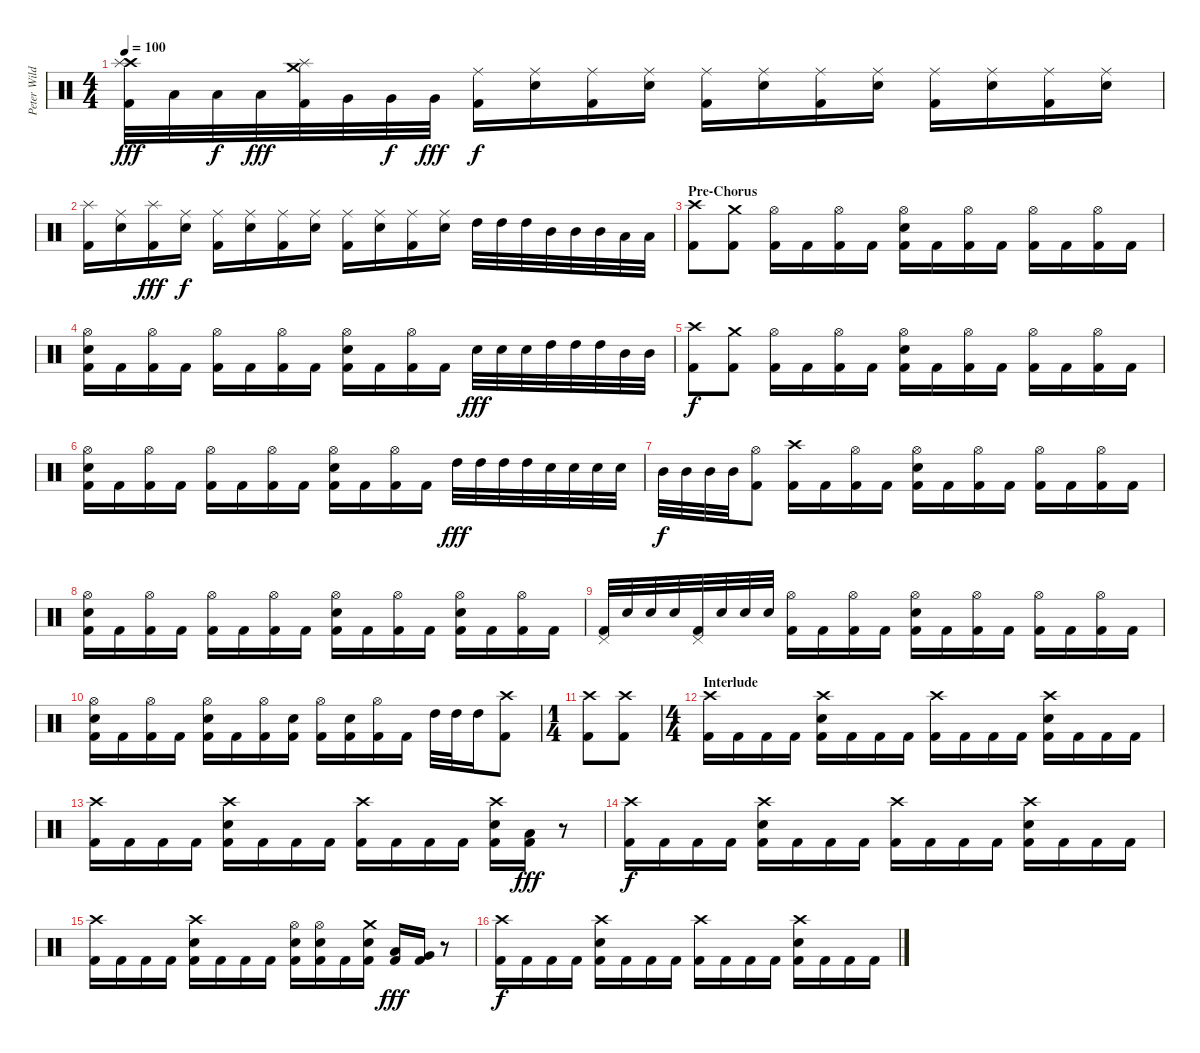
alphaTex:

\track ("Peter Wildoer" "Peter Wild") {instrument percussion}
\staff {score}
\articulation defaults
\ts (4 4)
\tempo 100
\clef neutral
\ks c
("Crash high (hit)" "Splash (hit)" "Kick (hit) 2").32{dy fff} "Low Tom (hit)".32 "Low Tom (hit)".32{dy f} "Low Tom (hit)".32{dy fff} ("Crash medium (hit)" "Splash (hit)" "Kick (hit) 2").32 "Very Low Tom (hit)".32 "Very Low Tom (hit)".32{dy f} "Very Low Tom (hit)".32{dy fff} ("Ride (middle)" "Kick (hit) 2").16{dy f} ("Ride (middle)" "Electric Snare (hit)").16 ("Ride (middle)" "Kick (hit) 2").16 ("Ride (middle)" "Electric Snare (hit)").16 ("Ride (middle)" "Kick (hit) 2").16 ("Ride (middle)" "Electric Snare (hit)").16 ("Ride (middle)" "Kick (hit) 2").16 ("Ride (middle)" "Electric Snare (hit)").16 ("Ride (middle)" "Kick (hit) 2").16 ("Ride (middle)" "Electric Snare (hit)").16 ("Ride (middle)" "Kick (hit) 2").16 ("Ride (middle)" "Electric Snare (hit)").16 |
("Splash (hit)" "Kick (hit) 2").16 ("Ride (middle)" "Electric Snare (hit)").16 ("Splash (hit)" "Kick (hit) 2").16{dy fff} ("Ride (middle)" "Electric Snare (hit)").16{dy f} ("Ride (middle)" "Kick (hit) 2").16 ("Ride (middle)" "Electric Snare (hit)").16 ("Ride (middle)" "Kick (hit) 2").16 ("Ride (middle)" "Electric Snare (hit)").16 ("Ride (middle)" "Kick (hit) 2").16 ("Ride (middle)" "Electric Snare (hit)").16 ("Ride (middle)" "Kick (hit) 2").16 ("Ride (middle)" "Electric Snare (hit)").16 "High Tom (hit)".32 "High Tom (hit)".32 "High Tom (hit)".32 "Mid Tom (hit)".32 "Mid Tom (hit)".32 "Mid Tom (hit)".32 "Low Tom (hit)".32 "Low Tom (hit)".32 |
\section ("" "Pre-Chorus")
("Crash high (hit)" "Kick (hit) 2").8 ("Crash medium (hit)" "Kick (hit) 2").8 ("Hi-Hat (open)" "Kick (hit) 2").16 "Kick (hit) 2".16 ("Hi-Hat (open)" "Kick (hit) 2").16 "Kick (hit) 2".16 ("Hi-Hat (open)" "Electric Snare (hit)" "Kick (hit) 2").16 "Kick (hit) 2".16 ("Hi-Hat (open)" "Kick (hit) 2").16 "Kick (hit) 2".16 ("Hi-Hat (open)" "Kick (hit) 2").16 "Kick (hit) 2".16 ("Hi-Hat (open)" "Kick (hit) 2").16 "Kick (hit) 2".16 |
("Hi-Hat (open)" "Electric Snare (hit)" "Kick (hit) 2").16 "Kick (hit) 2".16 ("Hi-Hat (open)" "Kick (hit) 2").16 "Kick (hit) 2".16 ("Hi-Hat (open)" "Kick (hit) 2").16 "Kick (hit) 2".16 ("Hi-Hat (open)" "Kick (hit) 2").16 "Kick (hit) 2".16 ("Hi-Hat (open)" "Electric Snare (hit)" "Kick (hit) 2").16 "Kick (hit) 2".16 ("Hi-Hat (open)" "Kick (hit) 2").16 "Kick (hit) 2".16 "Electric Snare (hit)".32{dy fff} "Electric Snare (hit)".32 "Electric Snare (hit)".32 "High Tom (hit)".32 "High Tom (hit)".32 "High Tom (hit)".32 "Mid Tom (hit)".32 "Mid Tom (hit)".32 |
("Crash high (hit)" "Kick (hit) 2").8{dy f} ("Crash medium (hit)" "Kick (hit) 2").8 ("Hi-Hat (open)" "Kick (hit) 2").16 "Kick (hit) 2".16 ("Hi-Hat (open)" "Kick (hit) 2").16 "Kick (hit) 2".16 ("Hi-Hat (open)" "Electric Snare (hit)" "Kick (hit) 2").16 "Kick (hit) 2".16 ("Hi-Hat (open)" "Kick (hit) 2").16 "Kick (hit) 2".16 ("Hi-Hat (open)" "Kick (hit) 2").16 "Kick (hit) 2".16 ("Hi-Hat (open)" "Kick (hit) 2").16 "Kick (hit) 2".16 |
("Hi-Hat (open)" "Electric Snare (hit)" "Kick (hit) 2").16 "Kick (hit) 2".16 ("Hi-Hat (open)" "Kick (hit) 2").16 "Kick (hit) 2".16 ("Hi-Hat (open)" "Kick (hit) 2").16 "Kick (hit) 2".16 ("Hi-Hat (open)" "Kick (hit) 2").16 "Kick (hit) 2".16 ("Hi-Hat (open)" "Electric Snare (hit)" "Kick (hit) 2").16 "Kick (hit) 2".16 ("Hi-Hat (open)" "Kick (hit) 2").16 "Kick (hit) 2".16 "High Tom (hit)".32{dy fff} "High Tom (hit)".32 "High Tom (hit)".32 "High Tom (hit)".32 "Electric Snare (hit)".32 "Electric Snare (hit)".32 "Electric Snare (hit)".32 "Electric Snare (hit)".32 |
"Mid Tom (hit)".32{dy f} "Mid Tom (hit)".32 "Mid Tom (hit)".32 "Mid Tom (hit)".32 ("Hi-Hat (open)" "Kick (hit) 2").8 ("Crash high (hit)" "Kick (hit) 2").16 "Kick (hit) 2".16 ("Hi-Hat (open)" "Kick (hit) 2").16 "Kick (hit) 2".16 ("Hi-Hat (open)" "Electric Snare (hit)" "Kick (hit) 2").16 "Kick (hit) 2".16 ("Hi-Hat (open)" "Kick (hit) 2").16 "Kick (hit) 2".16 ("Hi-Hat (open)" "Kick (hit) 2").16 "Kick (hit) 2".16 ("Hi-Hat (open)" "Kick (hit) 2").16 "Kick (hit) 2".16 |
("Hi-Hat (open)" "Electric Snare (hit)" "Kick (hit) 2").16 "Kick (hit) 2".16 ("Hi-Hat (open)" "Kick (hit) 2").16 "Kick (hit) 2".16 ("Hi-Hat (open)" "Kick (hit) 2").16 "Kick (hit) 2".16 ("Hi-Hat (open)" "Kick (hit) 2").16 "Kick (hit) 2".16 ("Hi-Hat (open)" "Electric Snare (hit)" "Kick (hit) 2").16 "Kick (hit) 2".16 ("Hi-Hat (open)" "Kick (hit) 2").16 "Kick (hit) 2".16 ("Hi-Hat (open)" "Electric Snare (hit)" "Kick (hit) 2").16 "Kick (hit) 2".16 ("Hi-Hat (open)" "Kick (hit) 2").16 "Kick (hit) 2".16 |
("Pedal Hi-Hat (hit)" "Kick (hit) 2").32 "Electric Snare (hit)".32 "Electric Snare (hit)".32 "Electric Snare (hit)".32 ("Pedal Hi-Hat (hit)" "Kick (hit) 2").32 "Electric Snare (hit)".32 "Electric Snare (hit)".32 "Electric Snare (hit)".32 ("Hi-Hat (open)" "Kick (hit) 2").16 "Kick (hit) 2".16 ("Hi-Hat (open)" "Kick (hit) 2").16 "Kick (hit) 2".16 ("Hi-Hat (open)" "Electric Snare (hit)" "Kick (hit) 2").16 "Kick (hit) 2".16 ("Hi-Hat (open)" "Kick (hit) 2").16 "Kick (hit) 2".16 ("Hi-Hat (open)" "Kick (hit) 2").16 "Kick (hit) 2".16 ("Hi-Hat (open)" "Kick (hit) 2").16 "Kick (hit) 2".16 |
("Hi-Hat (open)" "Electric Snare (hit)" "Kick (hit) 2").16 "Kick (hit) 2".16 ("Hi-Hat (open)" "Kick (hit) 2").16 "Kick (hit) 2".16 ("Hi-Hat (open)" "Electric Snare (hit)" "Kick (hit) 2").16 "Kick (hit) 2".16 ("Hi-Hat (open)" "Kick (hit) 2").16 ("Electric Snare (hit)" "Kick (hit) 2").16 ("Hi-Hat (open)" "Kick (hit) 2").16 ("Electric Snare (hit)" "Kick (hit) 2").16 ("Hi-Hat (open)" "Kick (hit) 2").16 "Kick (hit) 2".16 "High Tom (hit)".32 "High Tom (hit)".32 "High Tom (hit)".16 ("Crash high (hit)" "Kick (hit) 2").8 |
\ts (1 4)
("Crash high (hit)" "Kick (hit) 2").8 ("Crash high (hit)" "Kick (hit) 2").8 |
\ts (4 4)
\section ("" "Interlude")
("Crash high (hit)" "Kick (hit) 2").16 "Kick (hit) 2".16 "Kick (hit) 2".16 "Kick (hit) 2".16 ("Crash high (hit)" "Electric Snare (hit)" "Kick (hit) 2").16 "Kick (hit) 2".16 "Kick (hit) 2".16 "Kick (hit) 2".16 ("Crash high (hit)" "Kick (hit) 2").16 "Kick (hit) 2".16 "Kick (hit) 2".16 "Kick (hit) 2".16 ("Crash high (hit)" "Electric Snare (hit)" "Kick (hit) 2").16 "Kick (hit) 2".16 "Kick (hit) 2".16 "Kick (hit) 2".16 |
("Crash high (hit)" "Kick (hit) 2").16 "Kick (hit) 2".16 "Kick (hit) 2".16 "Kick (hit) 2".16 ("Crash high (hit)" "Electric Snare (hit)" "Kick (hit) 2").16 "Kick (hit) 2".16 "Kick (hit) 2".16 "Kick (hit) 2".16 ("Crash high (hit)" "Kick (hit) 2").16 "Kick (hit) 2".16 "Kick (hit) 2".16 "Kick (hit) 2".16 ("Crash high (hit)" "Electric Snare (hit)" "Kick (hit) 2").16 ("Low Floor Tom (hit)" "Kick (hit) 2").16{dy fff} r.8 |
("Crash high (hit)" "Kick (hit) 2").16{dy f} "Kick (hit) 2".16 "Kick (hit) 2".16 "Kick (hit) 2".16 ("Crash high (hit)" "Electric Snare (hit)" "Kick (hit) 2").16 "Kick (hit) 2".16 "Kick (hit) 2".16 "Kick (hit) 2".16 ("Crash high (hit)" "Kick (hit) 2").16 "Kick (hit) 2".16 "Kick (hit) 2".16 "Kick (hit) 2".16 ("Crash high (hit)" "Electric Snare (hit)" "Kick (hit) 2").16 "Kick (hit) 2".16 "Kick (hit) 2".16 "Kick (hit) 2".16 |
("Crash high (hit)" "Kick (hit) 2").16 "Kick (hit) 2".16 "Kick (hit) 2".16 "Kick (hit) 2".16 ("Crash high (hit)" "Electric Snare (hit)" "Kick (hit) 2").16 "Kick (hit) 2".16 "Kick (hit) 2".16 "Kick (hit) 2".16 ("Hi-Hat (open)" "Electric Snare (hit)" "Kick (hit) 2").16 ("Hi-Hat (open)" "Electric Snare (hit)" "Kick (hit) 2").16 "Kick (hit) 2".16 ("Crash medium (hit)" "Electric Snare (hit)" "Kick (hit) 2").16 ("Low Tom (hit)" "Kick (hit) 2").16{dy fff} ("Very Low Tom (hit)" "Kick (hit) 2").16 r.8 |
("Crash high (hit)" "Kick (hit) 2").16{dy f} "Kick (hit) 2".16 "Kick (hit) 2".16 "Kick (hit) 2".16 ("Crash high (hit)" "Electric Snare (hit)" "Kick (hit) 2").16 "Kick (hit) 2".16 "Kick (hit) 2".16 "Kick (hit) 2".16 ("Crash high (hit)" "Kick (hit) 2").16 "Kick (hit) 2".16 "Kick (hit) 2".16 "Kick (hit) 2".16 ("Crash high (hit)" "Electric Snare (hit)" "Kick (hit) 2").16 "Kick (hit) 2".16 "Kick (hit) 2".16 "Kick (hit) 2".16
